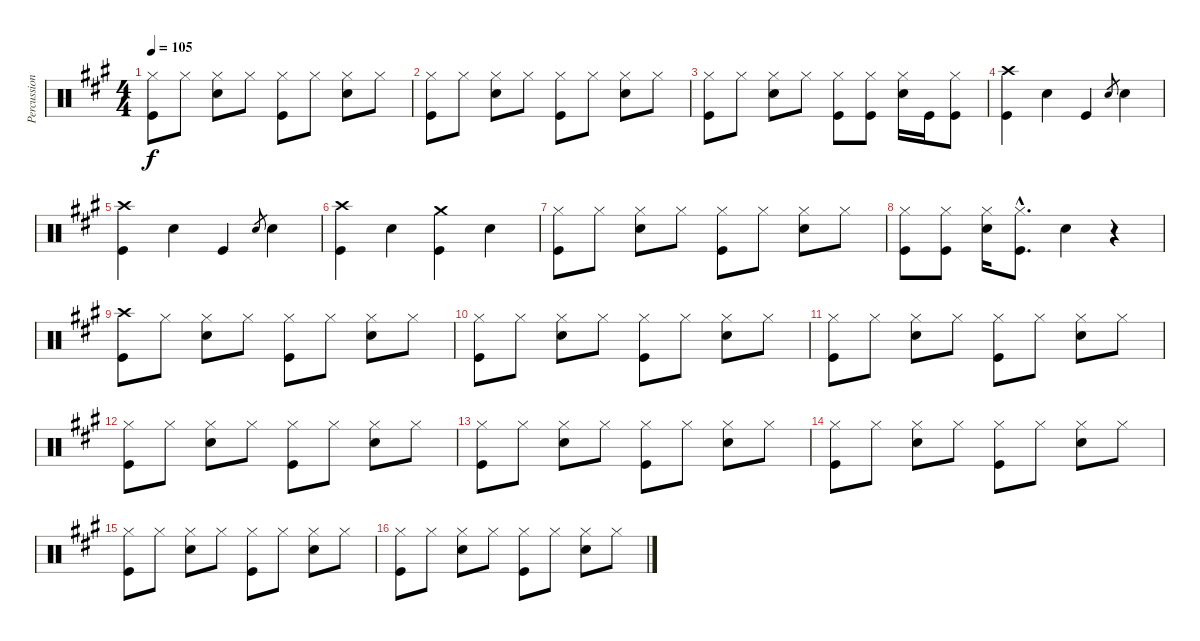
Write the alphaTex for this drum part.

\track ("Percussion" "Percussion") {instrument percussion}
\staff {score}
\articulation defaults
\ts (4 4)
\tempo 105
\clef neutral
\ks a
("Hi-Hat (closed)" "Kick (hit)").8{dy f} "Hi-Hat (closed)".8 ("Hi-Hat (closed)" "Snare (hit) 2").8 "Hi-Hat (closed)".8 ("Hi-Hat (closed)" "Kick (hit)").8 "Hi-Hat (closed)".8 ("Hi-Hat (closed)" "Snare (hit) 2").8 "Hi-Hat (closed)".8 |
("Hi-Hat (closed)" "Kick (hit)").8 "Hi-Hat (closed)".8 ("Hi-Hat (closed)" "Snare (hit) 2").8 "Hi-Hat (closed)".8 ("Hi-Hat (closed)" "Kick (hit)").8 "Hi-Hat (closed)".8 ("Hi-Hat (closed)" "Snare (hit) 2").8 "Hi-Hat (closed)".8 |
("Hi-Hat (closed)" "Kick (hit)").8 "Hi-Hat (closed)".8 ("Hi-Hat (closed)" "Snare (hit) 2").8 "Hi-Hat (closed)".8 ("Hi-Hat (closed)" "Kick (hit)").8 ("Hi-Hat (closed)" "Kick (hit)").8 ("Hi-Hat (closed)" "Snare (hit) 2").16 "Kick (hit)".16 ("Hi-Hat (closed)" "Kick (hit)").8 |
("Crash high (hit)" "Kick (hit)").4 "Snare (hit) 2".4 "Kick (hit)".4 "Snare (hit) 2".8{gr} "Snare (hit) 2".4 |
("Crash high (hit)" "Kick (hit)").4 "Snare (hit) 2".4 "Kick (hit)".4 "Snare (hit) 2".8{gr} "Snare (hit) 2".4 |
("Crash high (hit)" "Kick (hit)").4 "Snare (hit) 2".4 ("Crash medium (hit)" "Kick (hit)").4 "Snare (hit) 2".4 |
("Hi-Hat (closed)" "Kick (hit)").8 "Hi-Hat (closed)".8 ("Hi-Hat (closed)" "Snare (hit) 2").8 "Hi-Hat (closed)".8 ("Hi-Hat (closed)" "Kick (hit)").8 "Hi-Hat (closed)".8 ("Hi-Hat (closed)" "Snare (hit) 2").8 "Hi-Hat (closed)".8 |
("Hi-Hat (closed)" "Kick (hit)").8 ("Hi-Hat (closed)" "Kick (hit)").8 ("Hi-Hat (closed)" "Snare (hit) 2").16 ("Hi-Hat (closed)"{hac} "Kick (hit)"{hac}).8{d} "Snare (hit) 2".4 r.4 |
("Crash high (hit)" "Kick (hit)").8 "Hi-Hat (closed)".8 ("Hi-Hat (closed)" "Snare (hit) 2").8 "Hi-Hat (closed)".8 ("Hi-Hat (closed)" "Kick (hit)").8 "Hi-Hat (closed)".8 ("Hi-Hat (closed)" "Snare (hit) 2").8 "Hi-Hat (closed)".8 |
("Hi-Hat (closed)" "Kick (hit)").8 "Hi-Hat (closed)".8 ("Hi-Hat (closed)" "Snare (hit) 2").8 "Hi-Hat (closed)".8 ("Hi-Hat (closed)" "Kick (hit)").8 "Hi-Hat (closed)".8 ("Hi-Hat (closed)" "Snare (hit) 2").8 "Hi-Hat (closed)".8 |
("Hi-Hat (closed)" "Kick (hit)").8 "Hi-Hat (closed)".8 ("Hi-Hat (closed)" "Snare (hit) 2").8 "Hi-Hat (closed)".8 ("Hi-Hat (closed)" "Kick (hit)").8 "Hi-Hat (closed)".8 ("Hi-Hat (closed)" "Snare (hit) 2").8 "Hi-Hat (closed)".8 |
("Hi-Hat (closed)" "Kick (hit)").8 "Hi-Hat (closed)".8 ("Hi-Hat (closed)" "Snare (hit) 2").8 "Hi-Hat (closed)".8 ("Hi-Hat (closed)" "Kick (hit)").8 "Hi-Hat (closed)".8 ("Hi-Hat (closed)" "Snare (hit) 2").8 "Hi-Hat (closed)".8 |
("Hi-Hat (closed)" "Kick (hit)").8 "Hi-Hat (closed)".8 ("Hi-Hat (closed)" "Snare (hit) 2").8 "Hi-Hat (closed)".8 ("Hi-Hat (closed)" "Kick (hit)").8 "Hi-Hat (closed)".8 ("Hi-Hat (closed)" "Snare (hit) 2").8 "Hi-Hat (closed)".8 |
("Hi-Hat (closed)" "Kick (hit)").8 "Hi-Hat (closed)".8 ("Hi-Hat (closed)" "Snare (hit) 2").8 "Hi-Hat (closed)".8 ("Hi-Hat (closed)" "Kick (hit)").8 "Hi-Hat (closed)".8 ("Hi-Hat (closed)" "Snare (hit) 2").8 "Hi-Hat (closed)".8 |
("Hi-Hat (closed)" "Kick (hit)").8 "Hi-Hat (closed)".8 ("Hi-Hat (closed)" "Snare (hit) 2").8 "Hi-Hat (closed)".8 ("Hi-Hat (closed)" "Kick (hit)").8 "Hi-Hat (closed)".8 ("Hi-Hat (closed)" "Snare (hit) 2").8 "Hi-Hat (closed)".8 |
("Hi-Hat (closed)" "Kick (hit)").8 "Hi-Hat (closed)".8 ("Hi-Hat (closed)" "Snare (hit) 2").8 "Hi-Hat (closed)".8 ("Hi-Hat (closed)" "Kick (hit)").8 "Hi-Hat (closed)".8 ("Hi-Hat (closed)" "Snare (hit) 2").8 "Hi-Hat (closed)".8
